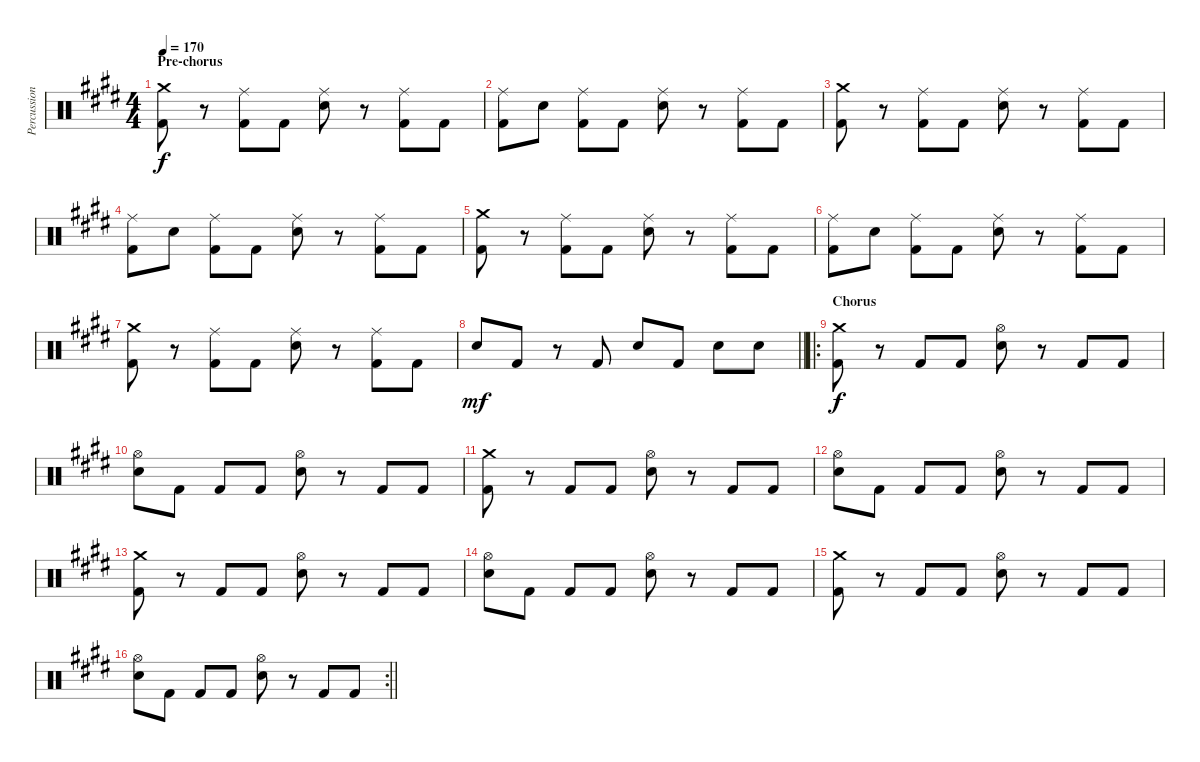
\track ("Percussion" "Percussion") {instrument percussion}
\staff {score}
\articulation defaults
\ts (4 4)
\section ("" "Pre-chorus")
\tempo 170
\clef neutral
\ks c#minor
("Crash medium (hit)" "Kick (hit) 2").8{dy f} r.8 ("Ride (middle)" "Kick (hit) 2").8 "Kick (hit) 2".8 ("Ride (middle)" "Snare (hit) 2").8 r.8 ("Ride (middle)" "Kick (hit) 2").8 "Kick (hit) 2".8 |
("Ride (middle)" "Kick (hit) 2").8 "Snare (hit) 2".8 ("Ride (middle)" "Kick (hit) 2").8 "Kick (hit) 2".8 ("Ride (middle)" "Snare (hit) 2").8 r.8 ("Ride (middle)" "Kick (hit) 2").8 "Kick (hit) 2".8 |
("Crash medium (hit)" "Kick (hit) 2").8 r.8 ("Ride (middle)" "Kick (hit) 2").8 "Kick (hit) 2".8 ("Ride (middle)" "Snare (hit) 2").8 r.8 ("Ride (middle)" "Kick (hit) 2").8 "Kick (hit) 2".8 |
("Ride (middle)" "Kick (hit) 2").8 "Snare (hit) 2".8 ("Ride (middle)" "Kick (hit) 2").8 "Kick (hit) 2".8 ("Ride (middle)" "Snare (hit) 2").8 r.8 ("Ride (middle)" "Kick (hit) 2").8 "Kick (hit) 2".8 |
("Crash medium (hit)" "Kick (hit) 2").8 r.8 ("Ride (middle)" "Kick (hit) 2").8 "Kick (hit) 2".8 ("Ride (middle)" "Snare (hit) 2").8 r.8 ("Ride (middle)" "Kick (hit) 2").8 "Kick (hit) 2".8 |
("Ride (middle)" "Kick (hit) 2").8 "Snare (hit) 2".8 ("Ride (middle)" "Kick (hit) 2").8 "Kick (hit) 2".8 ("Ride (middle)" "Snare (hit) 2").8 r.8 ("Ride (middle)" "Kick (hit) 2").8 "Kick (hit) 2".8 |
("Crash medium (hit)" "Kick (hit) 2").8 r.8 ("Ride (middle)" "Kick (hit) 2").8 "Kick (hit) 2".8 ("Ride (middle)" "Snare (hit) 2").8 r.8 ("Ride (middle)" "Kick (hit) 2").8 "Kick (hit) 2".8 |
\barLineRight lightlight "Snare (hit) 2".8{dy mf} "Kick (hit) 2".8
r.8 "Kick (hit) 2".8 "Snare (hit) 2".8 "Kick (hit) 2".8 "Snare (hit) 2".8 "Snare (hit) 2".8 |
\ro
\section ("" "Chorus")
("Crash medium (hit)" "Kick (hit) 2").8{dy f} r.8 "Kick (hit) 2".8 "Kick (hit) 2".8 ("Hi-Hat (open)" "Snare (hit) 2").8 r.8 "Kick (hit) 2".8 "Kick (hit) 2".8 |
("Hi-Hat (open)" "Snare (hit) 2").8 "Kick (hit) 2".8 "Kick (hit) 2".8 "Kick (hit) 2".8 ("Hi-Hat (open)" "Snare (hit) 2").8 r.8 "Kick (hit) 2".8 "Kick (hit) 2".8 |
("Crash medium (hit)" "Kick (hit) 2").8 r.8 "Kick (hit) 2".8 "Kick (hit) 2".8 ("Hi-Hat (open)" "Snare (hit) 2").8 r.8 "Kick (hit) 2".8 "Kick (hit) 2".8 |
("Hi-Hat (open)" "Snare (hit) 2").8 "Kick (hit) 2".8 "Kick (hit) 2".8 "Kick (hit) 2".8 ("Hi-Hat (open)" "Snare (hit) 2").8 r.8 "Kick (hit) 2".8 "Kick (hit) 2".8 |
("Crash medium (hit)" "Kick (hit) 2").8 r.8 "Kick (hit) 2".8 "Kick (hit) 2".8 ("Hi-Hat (open)" "Snare (hit) 2").8 r.8 "Kick (hit) 2".8 "Kick (hit) 2".8 |
("Hi-Hat (open)" "Snare (hit) 2").8 "Kick (hit) 2".8 "Kick (hit) 2".8 "Kick (hit) 2".8 ("Hi-Hat (open)" "Snare (hit) 2").8 r.8 "Kick (hit) 2".8 "Kick (hit) 2".8 |
("Crash medium (hit)" "Kick (hit) 2").8 r.8 "Kick (hit) 2".8 "Kick (hit) 2".8 ("Hi-Hat (open)" "Snare (hit) 2").8 r.8 "Kick (hit) 2".8 "Kick (hit) 2".8 |
\rc 2
\barLineRight lightlight
("Hi-Hat (open)" "Snare (hit) 2").8 "Kick (hit) 2".8 "Kick (hit) 2".8 "Kick (hit) 2".8 ("Hi-Hat (open)" "Snare (hit) 2").8 r.8 "Kick (hit) 2".8 "Kick (hit) 2".8
